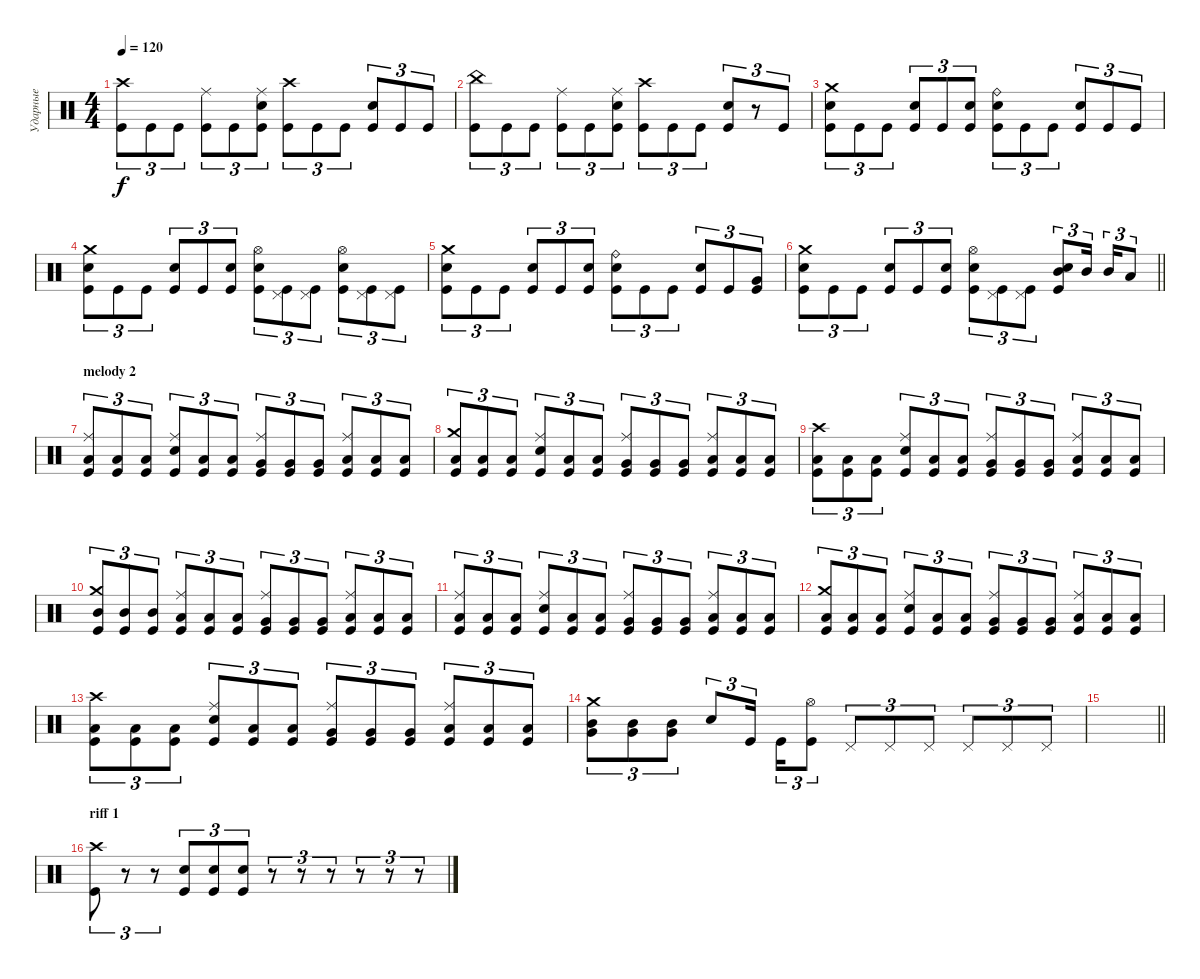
\track ("Ударные" "Ударные") {instrument percussion}
\staff {score}
\articulation defaults
\ts (4 4)
\tempo 120
\clef neutral
\ks c
("Crash high (hit)" "Kick (hit)").8{tu (3 2) dy f} "Kick (hit)".8{tu (3 2)} "Kick (hit)".8{tu (3 2)} ("Ride (middle)" "Kick (hit)").8{tu (3 2)} "Kick (hit)".8{tu (3 2)} ("Ride (middle)" "Kick (hit)" "Electric Snare (hit)").8{tu (3 2)} ("Crash high (hit)" "Kick (hit)").8{tu (3 2)} "Kick (hit)".8{tu (3 2)} "Kick (hit)".8{tu (3 2)} ("Kick (hit)" "Electric Snare (hit)").8{tu (3 2)} "Kick (hit)".8{tu (3 2)} "Kick (hit)".8{tu (3 2)} |
("China (hit)" "Kick (hit)").8{tu (3 2)} "Kick (hit)".8{tu (3 2)} "Kick (hit)".8{tu (3 2)} ("Ride (middle)" "Kick (hit)").8{tu (3 2)} "Kick (hit)".8{tu (3 2)} ("Ride (middle)" "Kick (hit)" "Electric Snare (hit)").8{tu (3 2)} ("Crash high (hit)" "Kick (hit)").8{tu (3 2)} "Kick (hit)".8{tu (3 2)} "Kick (hit)".8{tu (3 2)} ("Kick (hit)" "Electric Snare (hit)").8{tu (3 2)} r.8{tu (3 2)} "Kick (hit)".8{tu (3 2)} |
("Crash medium (hit)" "Kick (hit)" "Electric Snare (hit)").8{tu (3 2)} "Kick (hit)".8{tu (3 2)} "Kick (hit)".8{tu (3 2)} ("Electric Snare (hit)" "Kick (hit)").8{tu (3 2)} "Kick (hit)".8{tu (3 2)} ("Kick (hit)" "Electric Snare (hit)").8{tu (3 2)} ("Ride (bell)" "Electric Snare (hit)" "Kick (hit)").8{tu (3 2)} "Kick (hit)".8{tu (3 2)} "Kick (hit)".8{tu (3 2)} ("Kick (hit)" "Electric Snare (hit)").8{tu (3 2)} "Kick (hit)".8{tu (3 2)} "Kick (hit)".8{tu (3 2)} |
("Crash medium (hit)" "Kick (hit)" "Electric Snare (hit)").8{tu (3 2)} "Kick (hit)".8{tu (3 2)} "Kick (hit)".8{tu (3 2)} ("Electric Snare (hit)" "Kick (hit)").8{tu (3 2)} "Kick (hit)".8{tu (3 2)} ("Kick (hit)" "Electric Snare (hit)").8{tu (3 2)} ("Hi-Hat (open)" "Electric Snare (hit)" "Kick (hit)").8{tu (3 2)} ("Pedal Hi-Hat (hit)" "Kick (hit)").8{tu (3 2)} ("Pedal Hi-Hat (hit)" "Kick (hit)").8{tu (3 2)} ("Hi-Hat (open)" "Kick (hit)" "Electric Snare (hit)").8{tu (3 2)} ("Pedal Hi-Hat (hit)" "Kick (hit)").8{tu (3 2)} ("Pedal Hi-Hat (hit)" "Kick (hit)").8{tu (3 2)} |
("Crash medium (hit)" "Kick (hit)" "Electric Snare (hit)").8{tu (3 2)} "Kick (hit)".8{tu (3 2)} "Kick (hit)".8{tu (3 2)} ("Electric Snare (hit)" "Kick (hit)").8{tu (3 2)} "Kick (hit)".8{tu (3 2)} ("Kick (hit)" "Electric Snare (hit)").8{tu (3 2)} ("Ride (bell)" "Electric Snare (hit)" "Kick (hit)").8{tu (3 2)} "Kick (hit)".8{tu (3 2)} "Kick (hit)".8{tu (3 2)} ("Kick (hit)" "Electric Snare (hit)").8{tu (3 2)} "Kick (hit)".8{tu (3 2)} ("Kick (hit)" "Very Low Tom (hit)").8{tu (3 2)} |
\barLineRight lightlight
("Crash medium (hit)" "Kick (hit)" "Electric Snare (hit)").8{tu (3 2)} "Kick (hit)".8{tu (3 2)} "Kick (hit)".8{tu (3 2)} ("Electric Snare (hit)" "Kick (hit)").8{tu (3 2)} "Kick (hit)".8{tu (3 2)} ("Kick (hit)" "Electric Snare (hit)").8{tu (3 2)} ("Hi-Hat (open)" "Electric Snare (hit)" "Kick (hit)").8{tu (3 2)} ("Pedal Hi-Hat (hit)" "Kick (hit)").8{tu (3 2)} ("Pedal Hi-Hat (hit)" "Kick (hit)").8{tu (3 2)} ("Mid Tom (hit)" "Kick (hit)" "Electric Snare (hit)").8{tu (3 2)} "Mid Tom (hit)".16{tu (3 2) beam splitsecondary} "Mid Tom (hit)".16{tu (3 2)} "Low Tom (hit)".8{tu (3 2)} |
\section ("" "melody 2")
("Kick (hit)" "Low Floor Tom (hit)" "Ride (middle)").8{tu (3 2)} ("Kick (hit)" "Low Floor Tom (hit)").8{tu (3 2)} ("Kick (hit)" "Low Floor Tom (hit)").8{tu (3 2)} ("Kick (hit)" "Electric Snare (hit)" "Ride (middle)").8{tu (3 2)} ("Kick (hit)" "Low Floor Tom (hit)").8{tu (3 2)} ("Kick (hit)" "Low Floor Tom (hit)").8{tu (3 2)} ("Kick (hit)" "Very Low Tom (hit)" "Ride (middle)").8{tu (3 2)} ("Kick (hit)" "Very Low Tom (hit)").8{tu (3 2)} ("Kick (hit)" "Very Low Tom (hit)").8{tu (3 2)} ("Kick (hit)" "Low Tom (hit)" "Ride (middle)").8{tu (3 2)} ("Kick (hit)" "Low Tom (hit)").8{tu (3 2)} ("Kick (hit)" "Low Tom (hit)").8{tu (3 2)} |
("Kick (hit)" "Low Floor Tom (hit)" "Crash medium (hit)").8{tu (3 2)} ("Kick (hit)" "Low Floor Tom (hit)").8{tu (3 2)} ("Kick (hit)" "Low Floor Tom (hit)").8{tu (3 2)} ("Kick (hit)" "Electric Snare (hit)" "Ride (middle)").8{tu (3 2)} ("Kick (hit)" "Low Floor Tom (hit)").8{tu (3 2)} ("Kick (hit)" "Low Floor Tom (hit)").8{tu (3 2)} ("Kick (hit)" "Very Low Tom (hit)" "Ride (middle)").8{tu (3 2)} ("Kick (hit)" "Very Low Tom (hit)").8{tu (3 2)} ("Kick (hit)" "Very Low Tom (hit)").8{tu (3 2)} ("Kick (hit)" "Low Tom (hit)" "Ride (middle)").8{tu (3 2)} ("Kick (hit)" "Low Tom (hit)").8{tu (3 2)} ("Kick (hit)" "Low Tom (hit)").8{tu (3 2)} |
("Kick (hit)" "Low Floor Tom (hit)" "Crash high (hit)").8{tu (3 2)} ("Kick (hit)" "Low Floor Tom (hit)").8{tu (3 2)} ("Kick (hit)" "Low Floor Tom (hit)").8{tu (3 2)} ("Kick (hit)" "Electric Snare (hit)" "Ride (middle)").8{tu (3 2)} ("Kick (hit)" "Low Floor Tom (hit)").8{tu (3 2)} ("Kick (hit)" "Low Floor Tom (hit)").8{tu (3 2)} ("Kick (hit)" "Very Low Tom (hit)" "Ride (middle)").8{tu (3 2)} ("Kick (hit)" "Very Low Tom (hit)").8{tu (3 2)} ("Kick (hit)" "Very Low Tom (hit)").8{tu (3 2)} ("Kick (hit)" "Low Tom (hit)" "Ride (middle)").8{tu (3 2)} ("Kick (hit)" "Low Tom (hit)").8{tu (3 2)} ("Kick (hit)" "Low Tom (hit)").8{tu (3 2)} |
("Kick (hit)" "Mid Tom (hit)" "Crash medium (hit)").8{tu (3 2)} ("Kick (hit)" "Mid Tom (hit)").8{tu (3 2)} ("Kick (hit)" "Mid Tom (hit)").8{tu (3 2)} ("Kick (hit)" "Low Tom (hit)" "Ride (middle)").8{tu (3 2)} ("Kick (hit)" "Low Tom (hit)").8{tu (3 2)} ("Kick (hit)" "Low Tom (hit)").8{tu (3 2)} ("Kick (hit)" "Very Low Tom (hit)" "Ride (middle)").8{tu (3 2)} ("Kick (hit)" "Very Low Tom (hit)").8{tu (3 2)} ("Kick (hit)" "Very Low Tom (hit)").8{tu (3 2)} ("Kick (hit)" "Low Tom (hit)" "Ride (middle)").8{tu (3 2)} ("Kick (hit)" "Low Tom (hit)").8{tu (3 2)} ("Kick (hit)" "Low Tom (hit)").8{tu (3 2)} |
("Kick (hit)" "Low Floor Tom (hit)" "Ride (middle)").8{tu (3 2)} ("Kick (hit)" "Low Floor Tom (hit)").8{tu (3 2)} ("Kick (hit)" "Low Floor Tom (hit)").8{tu (3 2)} ("Kick (hit)" "Electric Snare (hit)" "Ride (middle)").8{tu (3 2)} ("Kick (hit)" "Low Floor Tom (hit)").8{tu (3 2)} ("Kick (hit)" "Low Floor Tom (hit)").8{tu (3 2)} ("Kick (hit)" "Very Low Tom (hit)" "Ride (middle)").8{tu (3 2)} ("Kick (hit)" "Very Low Tom (hit)").8{tu (3 2)} ("Kick (hit)" "Very Low Tom (hit)").8{tu (3 2)} ("Kick (hit)" "Low Tom (hit)" "Ride (middle)").8{tu (3 2)} ("Kick (hit)" "Low Tom (hit)").8{tu (3 2)} ("Kick (hit)" "Low Tom (hit)").8{tu (3 2)} |
("Kick (hit)" "Low Floor Tom (hit)" "Crash medium (hit)").8{tu (3 2)} ("Kick (hit)" "Low Floor Tom (hit)").8{tu (3 2)} ("Kick (hit)" "Low Floor Tom (hit)").8{tu (3 2)} ("Kick (hit)" "Electric Snare (hit)" "Ride (middle)").8{tu (3 2)} ("Kick (hit)" "Low Floor Tom (hit)").8{tu (3 2)} ("Kick (hit)" "Low Floor Tom (hit)").8{tu (3 2)} ("Kick (hit)" "Very Low Tom (hit)" "Ride (middle)").8{tu (3 2)} ("Kick (hit)" "Very Low Tom (hit)").8{tu (3 2)} ("Kick (hit)" "Very Low Tom (hit)").8{tu (3 2)} ("Kick (hit)" "Low Tom (hit)" "Ride (middle)").8{tu (3 2)} ("Kick (hit)" "Low Tom (hit)").8{tu (3 2)} ("Kick (hit)" "Low Tom (hit)").8{tu (3 2)} |
("Kick (hit)" "Low Floor Tom (hit)" "Crash high (hit)").8{tu (3 2)} ("Kick (hit)" "Low Floor Tom (hit)").8{tu (3 2)} ("Kick (hit)" "Low Floor Tom (hit)").8{tu (3 2)} ("Kick (hit)" "Electric Snare (hit)" "Ride (middle)").8{tu (3 2)} ("Kick (hit)" "Low Floor Tom (hit)").8{tu (3 2)} ("Kick (hit)" "Low Floor Tom (hit)").8{tu (3 2)} ("Kick (hit)" "Very Low Tom (hit)" "Ride (middle)").8{tu (3 2)} ("Kick (hit)" "Very Low Tom (hit)").8{tu (3 2)} ("Kick (hit)" "Very Low Tom (hit)").8{tu (3 2)} ("Kick (hit)" "Low Tom (hit)" "Ride (middle)").8{tu (3 2)} ("Kick (hit)" "Low Tom (hit)").8{tu (3 2)} ("Kick (hit)" "Low Tom (hit)").8{tu (3 2)} |
("Very Low Tom (hit)" "Mid Tom (hit)" "Crash medium (hit)").8{tu (3 2)} ("Very Low Tom (hit)" "Mid Tom (hit)").8{tu (3 2)} ("Very Low Tom (hit)" "Mid Tom (hit)").8{tu (3 2)} "Electric Snare (hit)".8{tu (3 2)} "Kick (hit)".16{tu (3 2) beam splitsecondary} "Kick (hit)".16{tu (3 2)} ("Hi-Hat (open)" "Kick (hit)").8{tu (3 2)} "Pedal Hi-Hat (hit)".8{tu (3 2)} "Pedal Hi-Hat (hit)".8{tu (3 2)} "Pedal Hi-Hat (hit)".8{tu (3 2)} "Pedal Hi-Hat (hit)".8{tu (3 2)} "Pedal Hi-Hat (hit)".8{tu (3 2)} "Pedal Hi-Hat (hit)".8{tu (3 2)} |
\barLineRight lightlight
|
\section ("" "riff 1")
("Crash high (hit)" "Kick (hit)").8{tu (3 2)} r.8{tu (3 2)} r.8{tu (3 2)} ("Electric Snare (hit)" "Kick (hit)").8{tu (3 2)} ("Electric Snare (hit)" "Kick (hit)").8{tu (3 2)} ("Electric Snare (hit)" "Kick (hit)").8{tu (3 2)} r.8{tu (3 2)} r.8{tu (3 2)} r.8{tu (3 2)} r.8{tu (3 2)} r.8{tu (3 2)} r.8{tu (3 2)}
